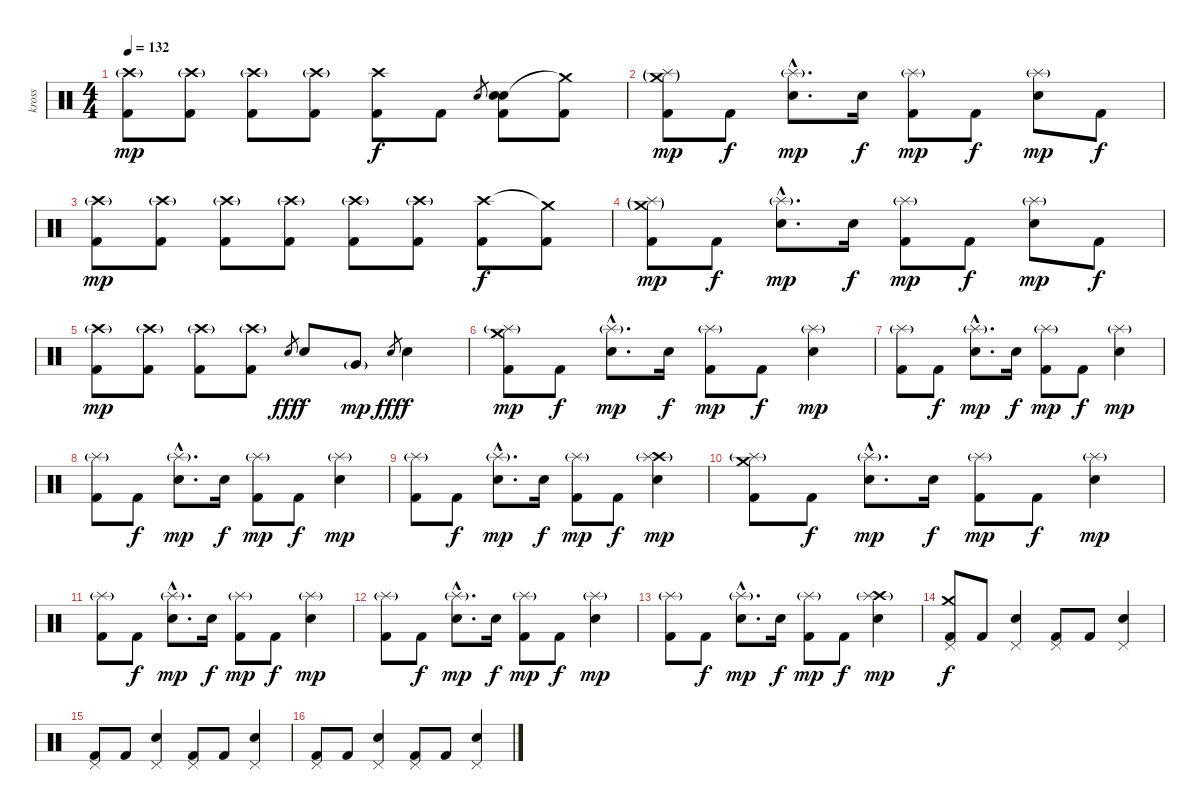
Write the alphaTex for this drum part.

\track ("kross" "kross") {instrument percussion}
\staff {score}
\articulation defaults
\ts (4 4)
\tempo 132
\clef neutral
\ks c
("Crash high (hit)"{g} "Kick (hit) 2").8{dy mp} ("Crash high (hit)"{g} "Kick (hit) 2").8 ("Crash high (hit)"{g} "Kick (hit) 2").8 ("Crash high (hit)"{g} "Kick (hit) 2").8 ("Crash high (hit)" "Kick (hit) 2").8{dy f} "Kick (hit) 2".8 "Electric Snare (hit)".8{gr} ("Electric Snare (hit)" "Electric Snare (hit)" "Kick (hit) 2").8 ("Crash medium (hit)"{t} "Kick (hit) 2").8 |
("Crash medium (hit)"{g} "Splash (hit)"{g} "Kick (hit) 2").8{dy mp} "Kick (hit) 2".8{dy f} ("Splash (hit)"{g hac} "Electric Snare (hit)"{hac}).8{d dy mp} "Electric Snare (hit)".16{dy f} ("Splash (hit)"{g} "Kick (hit) 2").8{dy mp} "Kick (hit) 2".8{dy f} ("Splash (hit)"{g} "Electric Snare (hit)").8{dy mp} "Kick (hit) 2".8{dy f} |
("Crash high (hit)"{g} "Kick (hit) 2").8{dy mp} ("Crash high (hit)"{g} "Kick (hit) 2").8 ("Crash high (hit)"{g} "Kick (hit) 2").8 ("Crash high (hit)"{g} "Kick (hit) 2").8 ("Crash high (hit)"{g} "Kick (hit) 2").8 ("Crash high (hit)"{g} "Kick (hit) 2").8 ("Crash high (hit)" "Kick (hit) 2").8{dy f} ("Crash medium (hit)"{t} "Kick (hit) 2").8 |
("Crash medium (hit)"{g} "Splash (hit)"{g} "Kick (hit) 2").8{dy mp} "Kick (hit) 2".8{dy f} ("Splash (hit)"{g hac} "Electric Snare (hit)"{hac}).8{d dy mp} "Electric Snare (hit)".16{dy f} ("Splash (hit)"{g} "Kick (hit) 2").8{dy mp} "Kick (hit) 2".8{dy f} ("Splash (hit)"{g} "Electric Snare (hit)").8{dy mp} "Kick (hit) 2".8{dy f} |
("Crash high (hit)"{g} "Kick (hit) 2").8{dy mp} ("Crash high (hit)"{g} "Kick (hit) 2").8 ("Crash high (hit)"{g} "Kick (hit) 2").8 ("Crash high (hit)"{g} "Kick (hit) 2").8 "Electric Snare (hit)".8{gr dy fff} "Electric Snare (hit)".8{dy f} "Very Low Tom (hit)"{g}.8{dy mp} "Electric Snare (hit)".8{gr dy fff} "Electric Snare (hit)".4{dy f} |
("Crash medium (hit)" "Splash (hit)"{g} "Kick (hit) 2").8{dy mp} "Kick (hit) 2".8{dy f} ("Splash (hit)"{g hac} "Electric Snare (hit)"{hac}).8{d dy mp} "Electric Snare (hit)".16{dy f} ("Splash (hit)"{g} "Kick (hit) 2").8{dy mp} "Kick (hit) 2".8{dy f} ("Splash (hit)"{g} "Electric Snare (hit)").4{dy mp} |
("Splash (hit)"{g} "Kick (hit) 2").8 "Kick (hit) 2".8{dy f} ("Splash (hit)"{g hac} "Electric Snare (hit)"{hac}).8{d dy mp} "Electric Snare (hit)".16{dy f} ("Splash (hit)"{g} "Kick (hit) 2").8{dy mp} "Kick (hit) 2".8{dy f} ("Splash (hit)"{g} "Electric Snare (hit)").4{dy mp} |
("Splash (hit)"{g} "Kick (hit) 2").8 "Kick (hit) 2".8{dy f} ("Splash (hit)"{g hac} "Electric Snare (hit)"{hac}).8{d dy mp} "Electric Snare (hit)".16{dy f} ("Splash (hit)"{g} "Kick (hit) 2").8{dy mp} "Kick (hit) 2".8{dy f} ("Splash (hit)"{g} "Electric Snare (hit)").4{dy mp} |
("Splash (hit)"{g} "Kick (hit) 2").8 "Kick (hit) 2".8{dy f} ("Splash (hit)"{g hac} "Electric Snare (hit)"{hac}).8{d dy mp} "Electric Snare (hit)".16{dy f} ("Splash (hit)"{g} "Kick (hit) 2").8{dy mp} "Kick (hit) 2".8{dy f} ("Crash high (hit)" "Splash (hit)"{g} "Electric Snare (hit)").4{dy mp} |
("Crash medium (hit)" "Splash (hit)"{g} "Kick (hit) 2").8 "Kick (hit) 2".8{dy f} ("Splash (hit)"{g hac} "Electric Snare (hit)"{hac}).8{d dy mp} "Electric Snare (hit)".16{dy f} ("Splash (hit)"{g} "Kick (hit) 2").8{dy mp} "Kick (hit) 2".8{dy f} ("Splash (hit)"{g} "Electric Snare (hit)").4{dy mp} |
("Splash (hit)"{g} "Kick (hit) 2").8 "Kick (hit) 2".8{dy f} ("Splash (hit)"{g hac} "Electric Snare (hit)"{hac}).8{d dy mp} "Electric Snare (hit)".16{dy f} ("Splash (hit)"{g} "Kick (hit) 2").8{dy mp} "Kick (hit) 2".8{dy f} ("Splash (hit)"{g} "Electric Snare (hit)").4{dy mp} |
("Splash (hit)"{g} "Kick (hit) 2").8 "Kick (hit) 2".8{dy f} ("Splash (hit)"{g hac} "Electric Snare (hit)"{hac}).8{d dy mp} "Electric Snare (hit)".16{dy f} ("Splash (hit)"{g} "Kick (hit) 2").8{dy mp} "Kick (hit) 2".8{dy f} ("Splash (hit)"{g} "Electric Snare (hit)").4{dy mp} |
("Splash (hit)"{g} "Kick (hit) 2").8 "Kick (hit) 2".8{dy f} ("Splash (hit)"{g hac} "Electric Snare (hit)"{hac}).8{d dy mp} "Electric Snare (hit)".16{dy f} ("Splash (hit)"{g} "Kick (hit) 2").8{dy mp} "Kick (hit) 2".8{dy f} ("Crash high (hit)"{g} "Splash (hit)" "Electric Snare (hit)").4{dy mp} |
("Crash medium (hit)" "Pedal Hi-Hat (hit)" "Kick (hit) 2").8{dy f} "Kick (hit) 2".8 ("Pedal Hi-Hat (hit)" "Electric Snare (hit)").4 ("Pedal Hi-Hat (hit)" "Kick (hit) 2").8 "Kick (hit) 2".8 ("Pedal Hi-Hat (hit)" "Electric Snare (hit)").4 |
("Pedal Hi-Hat (hit)" "Kick (hit) 2").8 "Kick (hit) 2".8 ("Pedal Hi-Hat (hit)" "Electric Snare (hit)").4 ("Pedal Hi-Hat (hit)" "Kick (hit) 2").8 "Kick (hit) 2".8 ("Pedal Hi-Hat (hit)" "Electric Snare (hit)").4 |
("Pedal Hi-Hat (hit)" "Kick (hit) 2").8 "Kick (hit) 2".8 ("Pedal Hi-Hat (hit)" "Electric Snare (hit)").4 ("Pedal Hi-Hat (hit)" "Kick (hit) 2").8 "Kick (hit) 2".8 ("Pedal Hi-Hat (hit)" "Electric Snare (hit)").4
